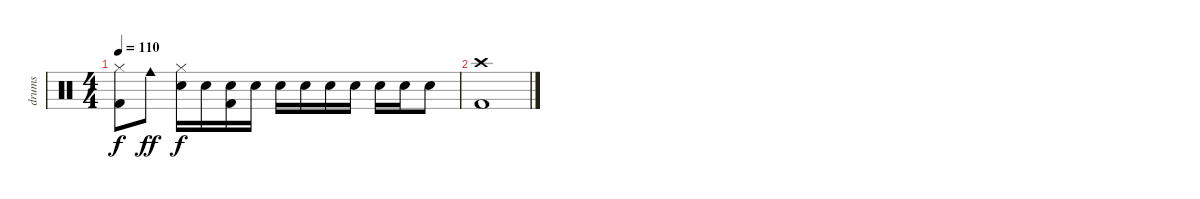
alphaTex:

\track ("drums" "drums") {instrument percussion}
\staff {score}
\articulation defaults
\ts (4 4)
\tempo 110
\clef neutral
\ks aminor
("Hi-Hat (closed)" "Kick (hit) 2").8{dy f} "Cowbell medium (hit)".8{dy ff} ("Hi-Hat (closed)" "Snare (hit) 2").16{dy f} "Snare (hit) 2".16 ("Snare (hit) 2" "Kick (hit) 2").16 "Snare (hit) 2".16 "Snare (hit) 2".16 "Snare (hit) 2".16 "Snare (hit) 2".16 "Snare (hit) 2".16 "Snare (hit) 2".16 "Snare (hit) 2".16 "Snare (hit) 2".8 |
("Crash high (hit)" "Kick (hit) 2").1
